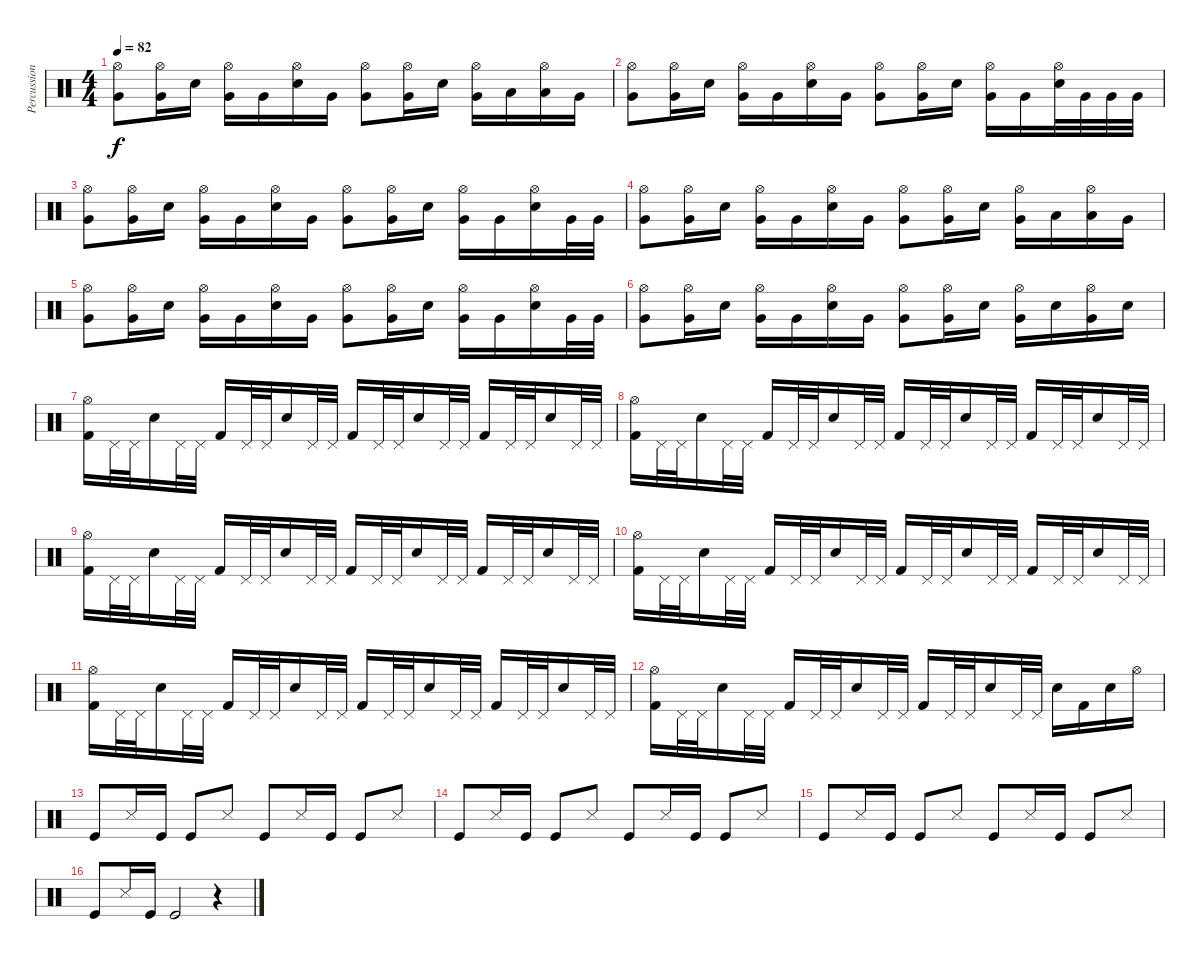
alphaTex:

\track ("Percussion" "Percussion") {instrument percussion}
\staff {score}
\articulation defaults
\ts (4 4)
\tempo 82
\clef neutral
\ks c
("Hi-Hat (open)" "Very Low Tom (hit)").8{dy f} ("Hi-Hat (open)" "Very Low Tom (hit)").16 "Snare (hit) 2".16 ("Hi-Hat (open)" "Very Low Tom (hit)").16 "Very Low Tom (hit)".16 ("Hi-Hat (open)" "Snare (hit) 2").16 "Very Low Tom (hit)".16 ("Hi-Hat (open)" "Very Low Tom (hit)").8 ("Hi-Hat (open)" "Very Low Tom (hit)").16 "Snare (hit) 2".16 ("Hi-Hat (open)" "Very Low Tom (hit)").16 "Low Tom (hit)".16 ("Hi-Hat (open)" "Low Tom (hit)").16 "Very Low Tom (hit)".16 |
("Hi-Hat (open)" "Very Low Tom (hit)").8 ("Hi-Hat (open)" "Very Low Tom (hit)").16 "Snare (hit) 2".16 ("Hi-Hat (open)" "Very Low Tom (hit)").16 "Very Low Tom (hit)".16 ("Hi-Hat (open)" "Snare (hit) 2").16 "Very Low Tom (hit)".16 ("Hi-Hat (open)" "Very Low Tom (hit)").8 ("Hi-Hat (open)" "Very Low Tom (hit)").16 "Snare (hit) 2".16 ("Hi-Hat (open)" "Very Low Tom (hit)").16 "Very Low Tom (hit)".16 ("Hi-Hat (open)" "Snare (hit) 2").32 "Very Low Tom (hit)".32 "Very Low Tom (hit)".32 "Very Low Tom (hit)".32 |
("Hi-Hat (open)" "Very Low Tom (hit)").8 ("Hi-Hat (open)" "Very Low Tom (hit)").16 "Snare (hit) 2".16 ("Hi-Hat (open)" "Very Low Tom (hit)").16 "Very Low Tom (hit)".16 ("Hi-Hat (open)" "Snare (hit) 2").16 "Very Low Tom (hit)".16 ("Hi-Hat (open)" "Very Low Tom (hit)").8 ("Hi-Hat (open)" "Very Low Tom (hit)").16 "Snare (hit) 2".16 ("Hi-Hat (open)" "Very Low Tom (hit)").16 "Very Low Tom (hit)".16 ("Hi-Hat (open)" "Snare (hit) 2").16 "Very Low Tom (hit)".32 "Very Low Tom (hit)".32 |
("Hi-Hat (open)" "Very Low Tom (hit)").8 ("Hi-Hat (open)" "Very Low Tom (hit)").16 "Snare (hit) 2".16 ("Hi-Hat (open)" "Very Low Tom (hit)").16 "Very Low Tom (hit)".16 ("Hi-Hat (open)" "Snare (hit) 2").16 "Very Low Tom (hit)".16 ("Hi-Hat (open)" "Very Low Tom (hit)").8 ("Hi-Hat (open)" "Very Low Tom (hit)").16 "Snare (hit) 2".16 ("Hi-Hat (open)" "Very Low Tom (hit)").16 "Low Tom (hit)".16 ("Hi-Hat (open)" "Low Tom (hit)").16 "Very Low Tom (hit)".16 |
("Hi-Hat (open)" "Very Low Tom (hit)").8 ("Hi-Hat (open)" "Very Low Tom (hit)").16 "Snare (hit) 2".16 ("Hi-Hat (open)" "Very Low Tom (hit)").16 "Very Low Tom (hit)".16 ("Hi-Hat (open)" "Snare (hit) 2").16 "Very Low Tom (hit)".16 ("Hi-Hat (open)" "Very Low Tom (hit)").8 ("Hi-Hat (open)" "Very Low Tom (hit)").16 "Snare (hit) 2".16 ("Hi-Hat (open)" "Very Low Tom (hit)").16 "Very Low Tom (hit)".16 ("Hi-Hat (open)" "Snare (hit) 2").16 "Very Low Tom (hit)".32 "Very Low Tom (hit)".32 |
("Hi-Hat (open)" "Very Low Tom (hit)").8 ("Hi-Hat (open)" "Very Low Tom (hit)").16 "Snare (hit) 2".16 ("Hi-Hat (open)" "Very Low Tom (hit)").16 "Very Low Tom (hit)".16 ("Hi-Hat (open)" "Snare (hit) 2").16 "Very Low Tom (hit)".16 ("Hi-Hat (open)" "Very Low Tom (hit)").8 ("Hi-Hat (open)" "Very Low Tom (hit)").16 "Snare (hit) 2".16 ("Hi-Hat (open)" "Very Low Tom (hit)").16 "Snare (hit) 2".16 ("Hi-Hat (open)" "Very Low Tom (hit)").16 "Snare (hit) 2".16 |
("Hi-Hat (open)" "Kick (hit) 2").16 "Pedal Hi-Hat (hit)".32 "Pedal Hi-Hat (hit)".32 "Snare (hit) 2".16 "Pedal Hi-Hat (hit)".32 "Pedal Hi-Hat (hit)".32 "Kick (hit) 2".16 "Pedal Hi-Hat (hit)".32 "Pedal Hi-Hat (hit)".32 "Snare (hit) 2".16 "Pedal Hi-Hat (hit)".32 "Pedal Hi-Hat (hit)".32 "Kick (hit) 2".16 "Pedal Hi-Hat (hit)".32 "Pedal Hi-Hat (hit)".32 "Snare (hit) 2".16 "Pedal Hi-Hat (hit)".32 "Pedal Hi-Hat (hit)".32 "Kick (hit) 2".16 "Pedal Hi-Hat (hit)".32 "Pedal Hi-Hat (hit)".32 "Snare (hit) 2".16 "Pedal Hi-Hat (hit)".32 "Pedal Hi-Hat (hit)".32 |
("Hi-Hat (open)" "Kick (hit) 2").16 "Pedal Hi-Hat (hit)".32 "Pedal Hi-Hat (hit)".32 "Snare (hit) 2".16 "Pedal Hi-Hat (hit)".32 "Pedal Hi-Hat (hit)".32 "Kick (hit) 2".16 "Pedal Hi-Hat (hit)".32 "Pedal Hi-Hat (hit)".32 "Snare (hit) 2".16 "Pedal Hi-Hat (hit)".32 "Pedal Hi-Hat (hit)".32 "Kick (hit) 2".16 "Pedal Hi-Hat (hit)".32 "Pedal Hi-Hat (hit)".32 "Snare (hit) 2".16 "Pedal Hi-Hat (hit)".32 "Pedal Hi-Hat (hit)".32 "Kick (hit) 2".16 "Pedal Hi-Hat (hit)".32 "Pedal Hi-Hat (hit)".32 "Snare (hit) 2".16 "Pedal Hi-Hat (hit)".32 "Pedal Hi-Hat (hit)".32 |
("Hi-Hat (open)" "Kick (hit) 2").16 "Pedal Hi-Hat (hit)".32 "Pedal Hi-Hat (hit)".32 "Snare (hit) 2".16 "Pedal Hi-Hat (hit)".32 "Pedal Hi-Hat (hit)".32 "Kick (hit) 2".16 "Pedal Hi-Hat (hit)".32 "Pedal Hi-Hat (hit)".32 "Snare (hit) 2".16 "Pedal Hi-Hat (hit)".32 "Pedal Hi-Hat (hit)".32 "Kick (hit) 2".16 "Pedal Hi-Hat (hit)".32 "Pedal Hi-Hat (hit)".32 "Snare (hit) 2".16 "Pedal Hi-Hat (hit)".32 "Pedal Hi-Hat (hit)".32 "Kick (hit) 2".16 "Pedal Hi-Hat (hit)".32 "Pedal Hi-Hat (hit)".32 "Snare (hit) 2".16 "Pedal Hi-Hat (hit)".32 "Pedal Hi-Hat (hit)".32 |
("Hi-Hat (open)" "Kick (hit) 2").16 "Pedal Hi-Hat (hit)".32 "Pedal Hi-Hat (hit)".32 "Snare (hit) 2".16 "Pedal Hi-Hat (hit)".32 "Pedal Hi-Hat (hit)".32 "Kick (hit) 2".16 "Pedal Hi-Hat (hit)".32 "Pedal Hi-Hat (hit)".32 "Snare (hit) 2".16 "Pedal Hi-Hat (hit)".32 "Pedal Hi-Hat (hit)".32 "Kick (hit) 2".16 "Pedal Hi-Hat (hit)".32 "Pedal Hi-Hat (hit)".32 "Snare (hit) 2".16 "Pedal Hi-Hat (hit)".32 "Pedal Hi-Hat (hit)".32 "Kick (hit) 2".16 "Pedal Hi-Hat (hit)".32 "Pedal Hi-Hat (hit)".32 "Snare (hit) 2".16 "Pedal Hi-Hat (hit)".32 "Pedal Hi-Hat (hit)".32 |
("Hi-Hat (open)" "Kick (hit) 2").16 "Pedal Hi-Hat (hit)".32 "Pedal Hi-Hat (hit)".32 "Snare (hit) 2".16 "Pedal Hi-Hat (hit)".32 "Pedal Hi-Hat (hit)".32 "Kick (hit) 2".16 "Pedal Hi-Hat (hit)".32 "Pedal Hi-Hat (hit)".32 "Snare (hit) 2".16 "Pedal Hi-Hat (hit)".32 "Pedal Hi-Hat (hit)".32 "Kick (hit) 2".16 "Pedal Hi-Hat (hit)".32 "Pedal Hi-Hat (hit)".32 "Snare (hit) 2".16 "Pedal Hi-Hat (hit)".32 "Pedal Hi-Hat (hit)".32 "Kick (hit) 2".16 "Pedal Hi-Hat (hit)".32 "Pedal Hi-Hat (hit)".32 "Snare (hit) 2".16 "Pedal Hi-Hat (hit)".32 "Pedal Hi-Hat (hit)".32 |
("Hi-Hat (open)" "Kick (hit) 2").16 "Pedal Hi-Hat (hit)".32 "Pedal Hi-Hat (hit)".32 "Snare (hit) 2".16 "Pedal Hi-Hat (hit)".32 "Pedal Hi-Hat (hit)".32 "Kick (hit) 2".16 "Pedal Hi-Hat (hit)".32 "Pedal Hi-Hat (hit)".32 "Snare (hit) 2".16 "Pedal Hi-Hat (hit)".32 "Pedal Hi-Hat (hit)".32 "Kick (hit) 2".16 "Pedal Hi-Hat (hit)".32 "Pedal Hi-Hat (hit)".32 "Snare (hit) 2".16 "Pedal Hi-Hat (hit)".32 "Pedal Hi-Hat (hit)".32 "Snare (hit) 2".16 "Kick (hit) 2".16 "Snare (hit) 2".16 "Hi-Hat (open)".16 |
"Kick (hit)".8 "Snare (side stick) 3".16 "Kick (hit)".16 "Kick (hit)".8 "Snare (side stick) 3".8 "Kick (hit)".8 "Snare (side stick) 3".16 "Kick (hit)".16 "Kick (hit)".8 "Snare (side stick) 3".8 |
"Kick (hit)".8 "Snare (side stick) 3".16 "Kick (hit)".16 "Kick (hit)".8 "Snare (side stick) 3".8 "Kick (hit)".8 "Snare (side stick) 3".16 "Kick (hit)".16 "Kick (hit)".8 "Snare (side stick) 3".8 |
"Kick (hit)".8 "Snare (side stick) 3".16 "Kick (hit)".16 "Kick (hit)".8 "Snare (side stick) 3".8 "Kick (hit)".8 "Snare (side stick) 3".16 "Kick (hit)".16 "Kick (hit)".8 "Snare (side stick) 3".8 |
"Kick (hit)".8 "Snare (side stick) 3".16 "Kick (hit)".16 "Kick (hit)".2 r.4
